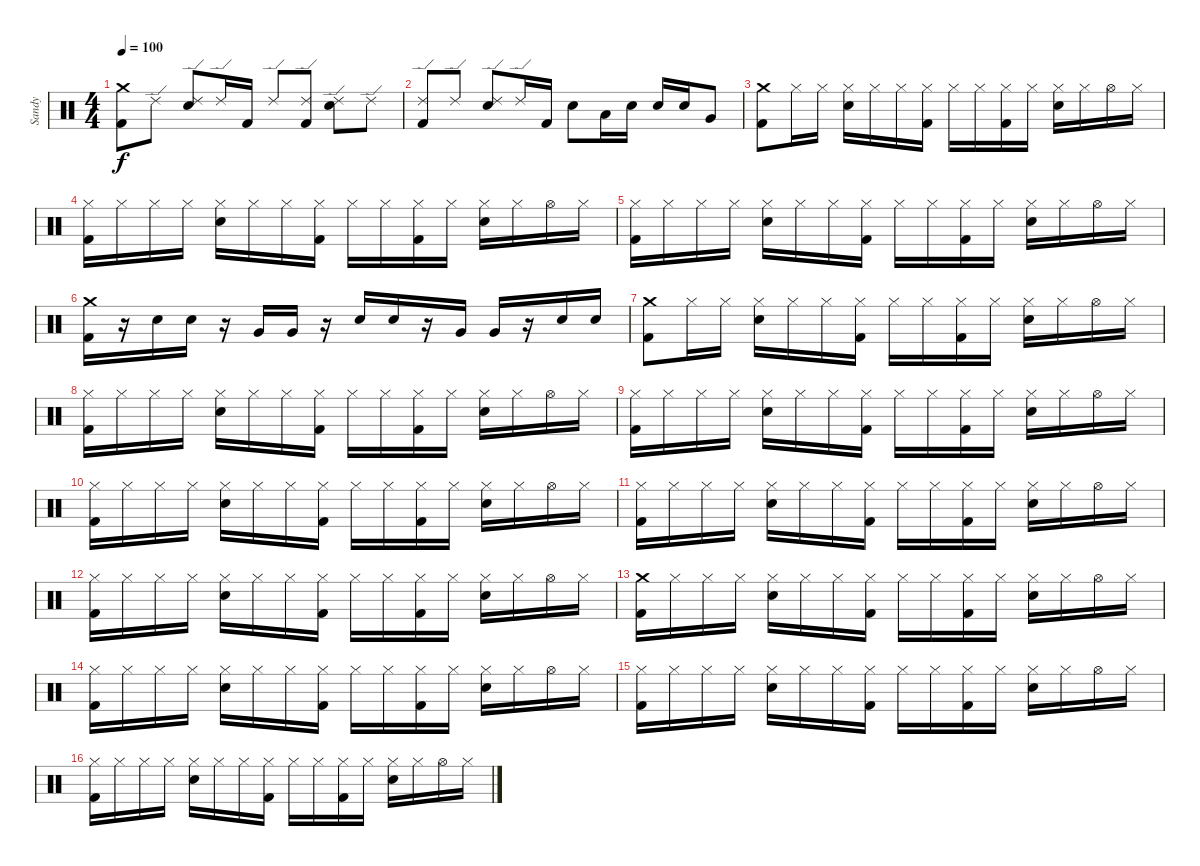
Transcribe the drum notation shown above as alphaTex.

\track ("Sandy" "Sandy") {instrument percussion}
\staff {score}
\articulation defaults
\ts (4 4)
\tempo 100
\clef neutral
\ks c
("Crash medium (hit)" "Kick (hit) 2").8{dy f} "Ride (edge) 2".8 ("Ride (edge) 2" "Snare (hit) 2").8 "Ride (edge) 2".16 "Kick (hit) 2".16 "Ride (edge) 2".8 ("Ride (edge) 2" "Kick (hit) 2").8 ("Ride (edge) 2" "Snare (hit) 2").8 "Ride (edge) 2".8 |
("Ride (edge) 2" "Kick (hit) 2").8 "Ride (edge) 2".8 ("Ride (edge) 2" "Snare (hit) 2").8 "Ride (edge) 2".16 "Kick (hit) 2".16 "Electric Snare (hit)".8 "Low Tom (hit)".16 "Electric Snare (hit)".16 "Electric Snare (hit)".16 "Electric Snare (hit)".16 "Very Low Tom (hit)".8 |
("Crash medium (hit)" "Kick (hit) 2").8 "Hi-Hat (closed)".16 "Hi-Hat (closed)".16 ("Hi-Hat (closed)" "Snare (hit) 2").16 "Hi-Hat (closed)".16 "Hi-Hat (closed)".16 ("Hi-Hat (closed)" "Kick (hit) 2").16 "Hi-Hat (closed)".16 "Hi-Hat (closed)".16 ("Hi-Hat (closed)" "Kick (hit) 2").16 "Hi-Hat (closed)".16 ("Hi-Hat (closed)" "Snare (hit) 2").16 "Hi-Hat (closed)".16 "Hi-Hat (open)".16 "Hi-Hat (closed)".16 |
("Hi-Hat (closed)" "Kick (hit) 2").16 "Hi-Hat (closed)".16 "Hi-Hat (closed)".16 "Hi-Hat (closed)".16 ("Hi-Hat (closed)" "Snare (hit) 2").16 "Hi-Hat (closed)".16 "Hi-Hat (closed)".16 ("Hi-Hat (closed)" "Kick (hit) 2").16 "Hi-Hat (closed)".16 "Hi-Hat (closed)".16 ("Hi-Hat (closed)" "Kick (hit) 2").16 "Hi-Hat (closed)".16 ("Hi-Hat (closed)" "Snare (hit) 2").16 "Hi-Hat (closed)".16 "Hi-Hat (open)".16 "Hi-Hat (closed)".16 |
("Hi-Hat (closed)" "Kick (hit) 2").16 "Hi-Hat (closed)".16 "Hi-Hat (closed)".16 "Hi-Hat (closed)".16 ("Hi-Hat (closed)" "Snare (hit) 2").16 "Hi-Hat (closed)".16 "Hi-Hat (closed)".16 ("Hi-Hat (closed)" "Kick (hit) 2").16 "Hi-Hat (closed)".16 "Hi-Hat (closed)".16 ("Hi-Hat (closed)" "Kick (hit) 2").16 "Hi-Hat (closed)".16 ("Hi-Hat (closed)" "Snare (hit) 2").16 "Hi-Hat (closed)".16 "Hi-Hat (open)".16 "Hi-Hat (closed)".16 |
("Crash medium (hit)" "Kick (hit) 2").16 r.16 "Electric Snare (hit)".16 "Electric Snare (hit)".16 r.16 "Very Low Tom (hit)".16 "Very Low Tom (hit)".16 r.16 "Electric Snare (hit)".16 "Electric Snare (hit)".16 r.16 "Very Low Tom (hit)".16 "Very Low Tom (hit)".16 r.16 "Electric Snare (hit)".16 "Electric Snare (hit)".16 |
("Crash medium (hit)" "Kick (hit) 2").8 "Hi-Hat (closed)".16 "Hi-Hat (closed)".16 ("Hi-Hat (closed)" "Snare (hit) 2").16 "Hi-Hat (closed)".16 "Hi-Hat (closed)".16 ("Hi-Hat (closed)" "Kick (hit) 2").16 "Hi-Hat (closed)".16 "Hi-Hat (closed)".16 ("Hi-Hat (closed)" "Kick (hit) 2").16 "Hi-Hat (closed)".16 ("Hi-Hat (closed)" "Snare (hit) 2").16 "Hi-Hat (closed)".16 "Hi-Hat (open)".16 "Hi-Hat (closed)".16 |
("Hi-Hat (closed)" "Kick (hit) 2").16 "Hi-Hat (closed)".16 "Hi-Hat (closed)".16 "Hi-Hat (closed)".16 ("Hi-Hat (closed)" "Snare (hit) 2").16 "Hi-Hat (closed)".16 "Hi-Hat (closed)".16 ("Hi-Hat (closed)" "Kick (hit) 2").16 "Hi-Hat (closed)".16 "Hi-Hat (closed)".16 ("Hi-Hat (closed)" "Kick (hit) 2").16 "Hi-Hat (closed)".16 ("Hi-Hat (closed)" "Snare (hit) 2").16 "Hi-Hat (closed)".16 "Hi-Hat (open)".16 "Hi-Hat (closed)".16 |
("Hi-Hat (closed)" "Kick (hit) 2").16 "Hi-Hat (closed)".16 "Hi-Hat (closed)".16 "Hi-Hat (closed)".16 ("Hi-Hat (closed)" "Snare (hit) 2").16 "Hi-Hat (closed)".16 "Hi-Hat (closed)".16 ("Hi-Hat (closed)" "Kick (hit) 2").16 "Hi-Hat (closed)".16 "Hi-Hat (closed)".16 ("Hi-Hat (closed)" "Kick (hit) 2").16 "Hi-Hat (closed)".16 ("Hi-Hat (closed)" "Snare (hit) 2").16 "Hi-Hat (closed)".16 "Hi-Hat (open)".16 "Hi-Hat (closed)".16 |
("Hi-Hat (closed)" "Kick (hit) 2").16 "Hi-Hat (closed)".16 "Hi-Hat (closed)".16 "Hi-Hat (closed)".16 ("Hi-Hat (closed)" "Snare (hit) 2").16 "Hi-Hat (closed)".16 "Hi-Hat (closed)".16 ("Hi-Hat (closed)" "Kick (hit) 2").16 "Hi-Hat (closed)".16 "Hi-Hat (closed)".16 ("Hi-Hat (closed)" "Kick (hit) 2").16 "Hi-Hat (closed)".16 ("Hi-Hat (closed)" "Snare (hit) 2").16 "Hi-Hat (closed)".16 "Hi-Hat (open)".16 "Hi-Hat (closed)".16 |
("Hi-Hat (closed)" "Kick (hit) 2").16 "Hi-Hat (closed)".16 "Hi-Hat (closed)".16 "Hi-Hat (closed)".16 ("Hi-Hat (closed)" "Snare (hit) 2").16 "Hi-Hat (closed)".16 "Hi-Hat (closed)".16 ("Hi-Hat (closed)" "Kick (hit) 2").16 "Hi-Hat (closed)".16 "Hi-Hat (closed)".16 ("Hi-Hat (closed)" "Kick (hit) 2").16 "Hi-Hat (closed)".16 ("Hi-Hat (closed)" "Snare (hit) 2").16 "Hi-Hat (closed)".16 "Hi-Hat (open)".16 "Hi-Hat (closed)".16 |
("Hi-Hat (closed)" "Kick (hit) 2").16 "Hi-Hat (closed)".16 "Hi-Hat (closed)".16 "Hi-Hat (closed)".16 ("Hi-Hat (closed)" "Snare (hit) 2").16 "Hi-Hat (closed)".16 "Hi-Hat (closed)".16 ("Hi-Hat (closed)" "Kick (hit) 2").16 "Hi-Hat (closed)".16 "Hi-Hat (closed)".16 ("Hi-Hat (closed)" "Kick (hit) 2").16 "Hi-Hat (closed)".16 ("Hi-Hat (closed)" "Snare (hit) 2").16 "Hi-Hat (closed)".16 "Hi-Hat (open)".16 "Hi-Hat (closed)".16 |
("Crash medium (hit)" "Kick (hit) 2").16 "Hi-Hat (closed)".16 "Hi-Hat (closed)".16 "Hi-Hat (closed)".16 ("Hi-Hat (closed)" "Snare (hit) 2").16 "Hi-Hat (closed)".16 "Hi-Hat (closed)".16 ("Hi-Hat (closed)" "Kick (hit) 2").16 "Hi-Hat (closed)".16 "Hi-Hat (closed)".16 ("Hi-Hat (closed)" "Kick (hit) 2").16 "Hi-Hat (closed)".16 ("Hi-Hat (closed)" "Snare (hit) 2").16 "Hi-Hat (closed)".16 "Hi-Hat (open)".16 "Hi-Hat (closed)".16 |
("Hi-Hat (closed)" "Kick (hit) 2").16 "Hi-Hat (closed)".16 "Hi-Hat (closed)".16 "Hi-Hat (closed)".16 ("Hi-Hat (closed)" "Snare (hit) 2").16 "Hi-Hat (closed)".16 "Hi-Hat (closed)".16 ("Hi-Hat (closed)" "Kick (hit) 2").16 "Hi-Hat (closed)".16 "Hi-Hat (closed)".16 ("Hi-Hat (closed)" "Kick (hit) 2").16 "Hi-Hat (closed)".16 ("Hi-Hat (closed)" "Snare (hit) 2").16 "Hi-Hat (closed)".16 "Hi-Hat (open)".16 "Hi-Hat (closed)".16 |
("Hi-Hat (closed)" "Kick (hit) 2").16 "Hi-Hat (closed)".16 "Hi-Hat (closed)".16 "Hi-Hat (closed)".16 ("Hi-Hat (closed)" "Snare (hit) 2").16 "Hi-Hat (closed)".16 "Hi-Hat (closed)".16 ("Hi-Hat (closed)" "Kick (hit) 2").16 "Hi-Hat (closed)".16 "Hi-Hat (closed)".16 ("Hi-Hat (closed)" "Kick (hit) 2").16 "Hi-Hat (closed)".16 ("Hi-Hat (closed)" "Snare (hit) 2").16 "Hi-Hat (closed)".16 "Hi-Hat (open)".16 "Hi-Hat (closed)".16 |
("Hi-Hat (closed)" "Kick (hit) 2").16 "Hi-Hat (closed)".16 "Hi-Hat (closed)".16 "Hi-Hat (closed)".16 ("Hi-Hat (closed)" "Snare (hit) 2").16 "Hi-Hat (closed)".16 "Hi-Hat (closed)".16 ("Hi-Hat (closed)" "Kick (hit) 2").16 "Hi-Hat (closed)".16 "Hi-Hat (closed)".16 ("Hi-Hat (closed)" "Kick (hit) 2").16 "Hi-Hat (closed)".16 ("Hi-Hat (closed)" "Snare (hit) 2").16 "Hi-Hat (closed)".16 "Hi-Hat (open)".16 "Hi-Hat (closed)".16
